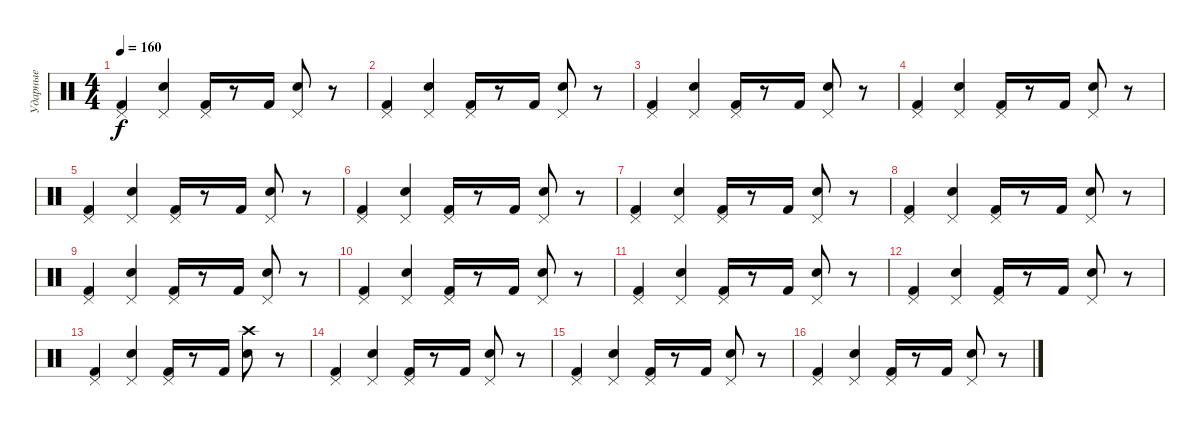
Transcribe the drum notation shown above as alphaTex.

\track ("Ударные" "Ударные") {instrument percussion}
\staff {score}
\articulation defaults
\ts (4 4)
\tempo 160
\clef neutral
\ks c
("Pedal Hi-Hat (hit)" "Kick (hit) 2").4{dy f} ("Pedal Hi-Hat (hit)" "Snare (hit) 2").4 ("Pedal Hi-Hat (hit)" "Kick (hit) 2").16 r.8 "Kick (hit) 2".16 ("Pedal Hi-Hat (hit)" "Snare (hit) 2").8 r.8 |
("Pedal Hi-Hat (hit)" "Kick (hit) 2").4 ("Pedal Hi-Hat (hit)" "Snare (hit) 2").4 ("Pedal Hi-Hat (hit)" "Kick (hit) 2").16 r.8 "Kick (hit) 2".16 ("Pedal Hi-Hat (hit)" "Snare (hit) 2").8 r.8 |
("Pedal Hi-Hat (hit)" "Kick (hit) 2").4 ("Pedal Hi-Hat (hit)" "Snare (hit) 2").4 ("Pedal Hi-Hat (hit)" "Kick (hit) 2").16 r.8 "Kick (hit) 2".16 ("Pedal Hi-Hat (hit)" "Snare (hit) 2").8 r.8 |
("Pedal Hi-Hat (hit)" "Kick (hit) 2").4 ("Pedal Hi-Hat (hit)" "Snare (hit) 2").4 ("Pedal Hi-Hat (hit)" "Kick (hit) 2").16 r.8 "Kick (hit) 2".16 ("Pedal Hi-Hat (hit)" "Snare (hit) 2").8 r.8 |
("Pedal Hi-Hat (hit)" "Kick (hit) 2").4 ("Pedal Hi-Hat (hit)" "Snare (hit) 2").4 ("Pedal Hi-Hat (hit)" "Kick (hit) 2").16 r.8 "Kick (hit) 2".16 ("Pedal Hi-Hat (hit)" "Snare (hit) 2").8 r.8 |
("Pedal Hi-Hat (hit)" "Kick (hit) 2").4 ("Pedal Hi-Hat (hit)" "Snare (hit) 2").4 ("Pedal Hi-Hat (hit)" "Kick (hit) 2").16 r.8 "Kick (hit) 2".16 ("Pedal Hi-Hat (hit)" "Snare (hit) 2").8 r.8 |
("Pedal Hi-Hat (hit)" "Kick (hit) 2").4 ("Pedal Hi-Hat (hit)" "Snare (hit) 2").4 ("Pedal Hi-Hat (hit)" "Kick (hit) 2").16 r.8 "Kick (hit) 2".16 ("Pedal Hi-Hat (hit)" "Snare (hit) 2").8 r.8 |
("Pedal Hi-Hat (hit)" "Kick (hit) 2").4 ("Pedal Hi-Hat (hit)" "Snare (hit) 2").4 ("Pedal Hi-Hat (hit)" "Kick (hit) 2").16 r.8 "Kick (hit) 2".16 ("Pedal Hi-Hat (hit)" "Snare (hit) 2").8 r.8 |
("Pedal Hi-Hat (hit)" "Kick (hit) 2").4 ("Pedal Hi-Hat (hit)" "Snare (hit) 2").4 ("Pedal Hi-Hat (hit)" "Kick (hit) 2").16 r.8 "Kick (hit) 2".16 ("Pedal Hi-Hat (hit)" "Snare (hit) 2").8 r.8 |
("Pedal Hi-Hat (hit)" "Kick (hit) 2").4 ("Pedal Hi-Hat (hit)" "Snare (hit) 2").4 ("Pedal Hi-Hat (hit)" "Kick (hit) 2").16 r.8 "Kick (hit) 2".16 ("Pedal Hi-Hat (hit)" "Snare (hit) 2").8 r.8 |
("Pedal Hi-Hat (hit)" "Kick (hit) 2").4 ("Pedal Hi-Hat (hit)" "Snare (hit) 2").4 ("Pedal Hi-Hat (hit)" "Kick (hit) 2").16 r.8 "Kick (hit) 2".16 ("Pedal Hi-Hat (hit)" "Snare (hit) 2").8 r.8 |
("Pedal Hi-Hat (hit)" "Kick (hit) 2").4 ("Pedal Hi-Hat (hit)" "Snare (hit) 2").4 ("Pedal Hi-Hat (hit)" "Kick (hit) 2").16 r.8 "Kick (hit) 2".16 ("Pedal Hi-Hat (hit)" "Snare (hit) 2").8 r.8 |
("Pedal Hi-Hat (hit)" "Kick (hit) 2").4 ("Pedal Hi-Hat (hit)" "Snare (hit) 2").4 ("Pedal Hi-Hat (hit)" "Kick (hit) 2").16 r.8 "Kick (hit) 2".16 ("Crash high (hit)" "Snare (hit) 2").8 r.8 |
("Pedal Hi-Hat (hit)" "Kick (hit) 2").4 ("Pedal Hi-Hat (hit)" "Snare (hit) 2").4 ("Pedal Hi-Hat (hit)" "Kick (hit) 2").16 r.8 "Kick (hit) 2".16 ("Pedal Hi-Hat (hit)" "Snare (hit) 2").8 r.8 |
("Pedal Hi-Hat (hit)" "Kick (hit) 2").4 ("Pedal Hi-Hat (hit)" "Snare (hit) 2").4 ("Pedal Hi-Hat (hit)" "Kick (hit) 2").16 r.8 "Kick (hit) 2".16 ("Pedal Hi-Hat (hit)" "Snare (hit) 2").8 r.8 |
("Pedal Hi-Hat (hit)" "Kick (hit) 2").4 ("Pedal Hi-Hat (hit)" "Snare (hit) 2").4 ("Pedal Hi-Hat (hit)" "Kick (hit) 2").16 r.8 "Kick (hit) 2".16 ("Pedal Hi-Hat (hit)" "Snare (hit) 2").8 r.8
